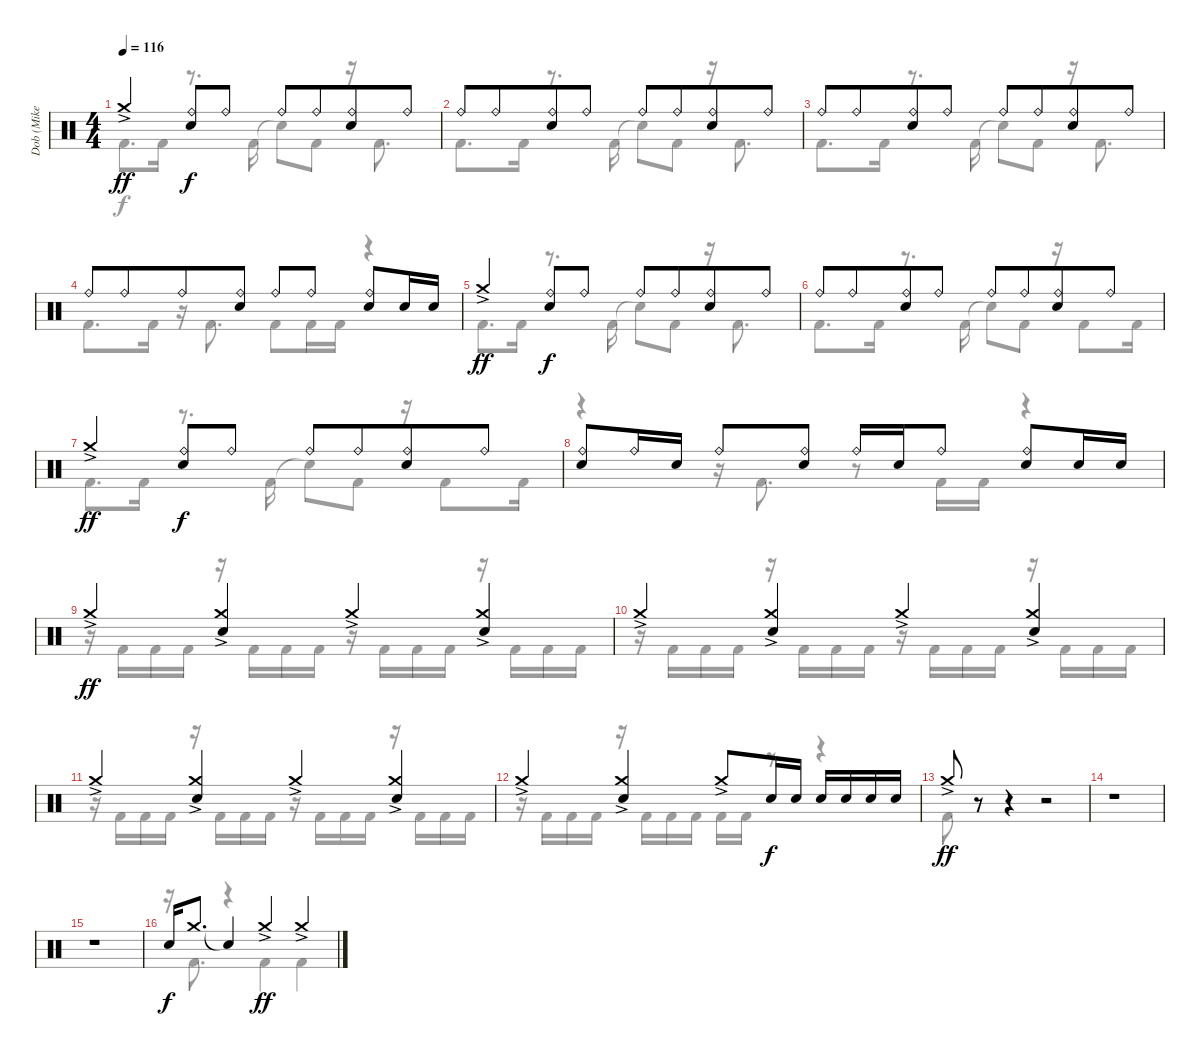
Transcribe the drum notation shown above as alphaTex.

\track ("Dob (Mike Terrana)" "Dob (Mike ") {instrument percussion}
\staff {score}
\articulation defaults
\voice
\ts (4 4)
\tempo 116
\clef neutral
\ks c "Crash medium (hit)"{ac}.4{dy ff}
("Ride (bell)" "Electric Snare (hit)").8{dy f} "Ride (bell)".8 "Ride (bell)".8 "Ride (bell)".8{beam merge} ("Ride (bell)" "Electric Snare (hit)").8 "Ride (bell)".8 |
"Ride (bell)".8 "Ride (bell)".8{beam merge} ("Ride (bell)" "Electric Snare (hit)").8 "Ride (bell)".8 "Ride (bell)".8 "Ride (bell)".8{beam merge} ("Ride (bell)" "Electric Snare (hit)").8 "Ride (bell)".8 |
"Ride (bell)".8 "Ride (bell)".8{beam merge} ("Ride (bell)" "Electric Snare (hit)").8 "Ride (bell)".8 "Ride (bell)".8 "Ride (bell)".8{beam merge} ("Ride (bell)" "Electric Snare (hit)").8 "Ride (bell)".8 |
"Ride (bell)".8 "Ride (bell)".8{beam merge} "Ride (bell)".8 ("Ride (bell)" "Electric Snare (hit)").8 "Ride (bell)".8 "Ride (bell)".8 ("Ride (bell)" "Electric Snare (hit)").8 "Electric Snare (hit)".16 "Electric Snare (hit)".16 |
"Crash medium (hit)"{ac}.4{dy ff} ("Ride (bell)" "Electric Snare (hit)").8{dy f} "Ride (bell)".8 "Ride (bell)".8 "Ride (bell)".8{beam merge} ("Ride (bell)" "Electric Snare (hit)").8 "Ride (bell)".8 |
"Ride (bell)".8 "Ride (bell)".8{beam merge} ("Ride (bell)" "Electric Snare (hit)").8 "Ride (bell)".8 "Ride (bell)".8 "Ride (bell)".8{beam merge} ("Ride (bell)" "Electric Snare (hit)").8 "Ride (bell)".8 |
"Crash medium (hit)"{ac}.4{dy ff} ("Ride (bell)" "Electric Snare (hit)").8{dy f} "Ride (bell)".8 "Ride (bell)".8 "Ride (bell)".8{beam merge} ("Ride (bell)" "Electric Snare (hit)").8 "Ride (bell)".8 |
("Ride (bell)" "Electric Snare (hit)").8 "Ride (bell)".16 "Electric Snare (hit)".16 "Ride (bell)".8 ("Ride (bell)" "Electric Snare (hit)").8 "Ride (bell)".16 "Electric Snare (hit)".16 "Ride (bell)".8 ("Ride (bell)" "Electric Snare (hit)").8 "Electric Snare (hit)".16 "Electric Snare (hit)".16 |
"Crash medium (hit)"{ac}.4{dy ff} ("Crash medium (hit)"{ac} "Electric Snare (hit)").4 "Crash medium (hit)"{ac}.4 ("Crash medium (hit)"{ac} "Electric Snare (hit)").4 |
"Crash medium (hit)"{ac}.4 ("Crash medium (hit)"{ac} "Electric Snare (hit)").4 "Crash medium (hit)"{ac}.4 ("Crash medium (hit)"{ac} "Electric Snare (hit)").4 |
"Crash medium (hit)"{ac}.4 ("Crash medium (hit)"{ac} "Electric Snare (hit)").4 "Crash medium (hit)"{ac}.4 ("Crash medium (hit)"{ac} "Electric Snare (hit)").4 |
"Crash medium (hit)"{ac}.4 ("Crash medium (hit)"{ac} "Electric Snare (hit)").4 "Crash medium (hit)"{ac}.8 "Electric Snare (hit)".16{dy f} "Electric Snare (hit)".16 "Electric Snare (hit)".16 "Electric Snare (hit)".16 "Electric Snare (hit)".16 "Electric Snare (hit)".16 |
"Crash medium (hit)"{ac}.8{dy ff} r.8 r.4 r.2 |
r.1 |
r.1 |
"Electric Snare (hit)".16{dy f} "Crash medium (hit)".8{d} "Snare (hit)"{t}.4 "Crash medium (hit)"{ac}.4{dy ff} "Crash medium (hit)"{ac}.4
\voice
\clef neutral
\ottava regular
\simile none
\ks c "Kick (hit) 2".8{d dy f} "Kick (hit) 2".16
r.8{d} "Kick (hit) 2".16 "Snare (hit)"{t}.8 "Kick (hit) 2".8 r.16 "Kick (hit) 2".8{d} |
"Kick (hit) 2".8{d} "Kick (hit) 2".16 r.8{d} "Kick (hit) 2".16 "Snare (hit)"{t}.8 "Kick (hit) 2".8 r.16 "Kick (hit) 2".8{d} |
"Kick (hit) 2".8{d} "Kick (hit) 2".16 r.8{d} "Kick (hit) 2".16 "Snare (hit)"{t}.8 "Kick (hit) 2".8 r.16 "Kick (hit) 2".8{d} |
"Kick (hit) 2".8{d} "Kick (hit) 2".16 r.16 "Kick (hit) 2".8{d} "Kick (hit) 2".8 "Kick (hit) 2".16 "Kick (hit) 2".16 r.4 |
"Kick (hit) 2".8{d} "Kick (hit) 2".16 r.8{d} "Kick (hit) 2".16 "Snare (hit)"{t}.8 "Kick (hit) 2".8 r.16 "Kick (hit) 2".8{d} |
"Kick (hit) 2".8{d} "Kick (hit) 2".16 r.8{d} "Kick (hit) 2".16 "Snare (hit)"{t}.8 "Kick (hit) 2".8 r.16 "Kick (hit) 2".8 "Kick (hit) 2".16 |
"Kick (hit) 2".8{d} "Kick (hit) 2".16 r.8{d} "Kick (hit) 2".16 "Snare (hit)"{t}.8 "Kick (hit) 2".8 r.16 "Kick (hit) 2".8 "Kick (hit) 2".16 |
r.4 r.16 "Kick (hit) 2".8{d} r.8 "Kick (hit) 2".16 "Kick (hit) 2".16 r.4 |
r.16 "Kick (hit) 2".16 "Kick (hit) 2".16 "Kick (hit) 2".16 r.16 "Kick (hit) 2".16 "Kick (hit) 2".16 "Kick (hit) 2".16 r.16 "Kick (hit) 2".16 "Kick (hit) 2".16 "Kick (hit) 2".16 r.16 "Kick (hit) 2".16 "Kick (hit) 2".16 "Kick (hit) 2".16 |
r.16 "Kick (hit) 2".16 "Kick (hit) 2".16 "Kick (hit) 2".16 r.16 "Kick (hit) 2".16 "Kick (hit) 2".16 "Kick (hit) 2".16 r.16 "Kick (hit) 2".16 "Kick (hit) 2".16 "Kick (hit) 2".16 r.16 "Kick (hit) 2".16 "Kick (hit) 2".16 "Kick (hit) 2".16 |
r.16 "Kick (hit) 2".16 "Kick (hit) 2".16 "Kick (hit) 2".16 r.16 "Kick (hit) 2".16 "Kick (hit) 2".16 "Kick (hit) 2".16 r.16 "Kick (hit) 2".16 "Kick (hit) 2".16 "Kick (hit) 2".16 r.16 "Kick (hit) 2".16 "Kick (hit) 2".16 "Kick (hit) 2".16 |
r.16 "Kick (hit) 2".16 "Kick (hit) 2".16 "Kick (hit) 2".16 r.16 "Kick (hit) 2".16 "Kick (hit) 2".16 "Kick (hit) 2".16 "Kick (hit) 2".16 "Kick (hit) 2".16 r.8 r.4 |
"Kick (hit) 2".8 r.8 r.4 r.2 |
r.1 |
r.1 |
r.16 "Kick (hit) 2".8{d} r.4 "Kick (hit) 2".4 "Kick (hit) 2".4
